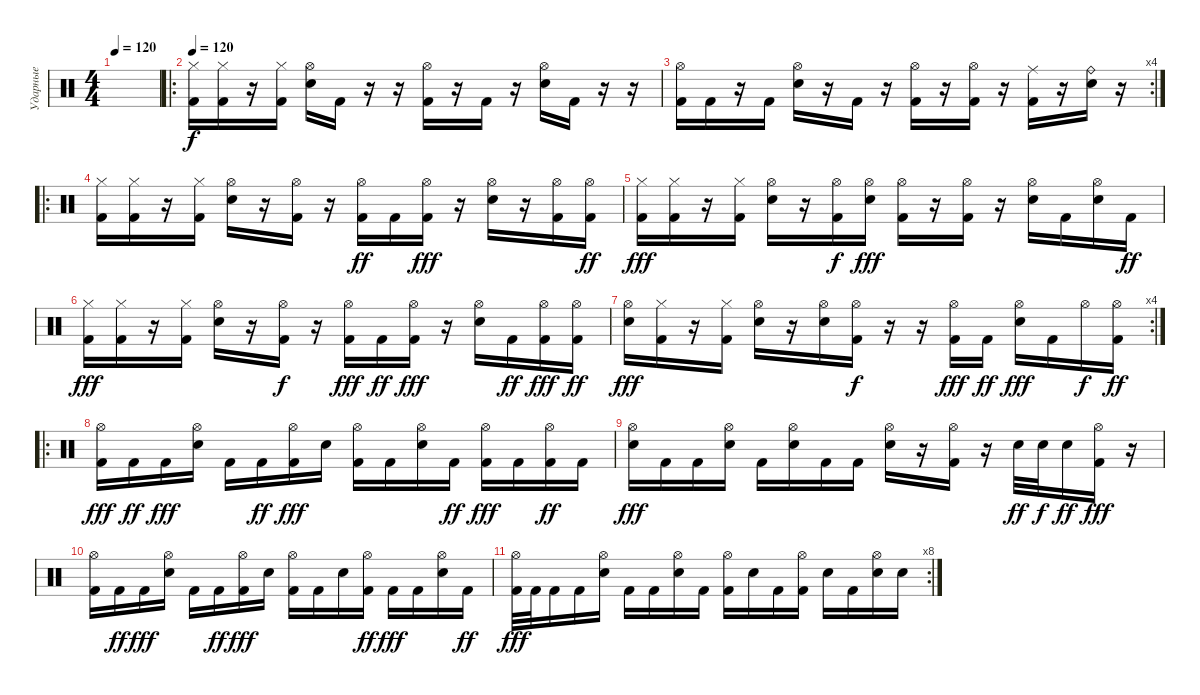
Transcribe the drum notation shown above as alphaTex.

\track ("Ударные" "Ударные") {instrument percussion}
\staff {score}
\articulation defaults
\ts (4 4)
\tempo 120
\clef neutral
\ks c
|
\ro
\tempo 120
("Hi-Hat (closed)" "Kick (hit) 2").16 ("Hi-Hat (closed)" "Kick (hit) 2").16 r.16 ("Hi-Hat (closed)" "Kick (hit) 2").16 ("Hi-Hat (open)" "Electric Snare (hit)").16 "Kick (hit) 2".16 r.16 r.16 ("Hi-Hat (open)" "Kick (hit) 2").16 r.16 "Kick (hit) 2".16 r.16 ("Hi-Hat (open)" "Electric Snare (hit)").16 "Kick (hit) 2".16 r.16 r.16 |
\rc 4
("Hi-Hat (open)" "Kick (hit) 2").16 "Kick (hit) 2".16 r.16 "Kick (hit) 2".16 ("Hi-Hat (open)" "Electric Snare (hit)").16 r.16 "Kick (hit) 2".16 r.16 ("Hi-Hat (open)" "Kick (hit) 2").16 r.16 ("Hi-Hat (open)" "Kick (hit) 2").16 r.16 ("Ride (middle)" "Kick (hit) 2").16 r.16 ("Ride (bell)" "Electric Snare (hit)").16 r.16 |
\ro
("Hi-Hat (closed)" "Kick (hit) 2").16 ("Hi-Hat (closed)" "Kick (hit) 2").16 r.16 ("Hi-Hat (closed)" "Kick (hit) 2").16 ("Hi-Hat (open)" "Electric Snare (hit)").16 r.16 ("Hi-Hat (open)" "Kick (hit) 2").16{dy f} r.16 ("Hi-Hat (open)" "Kick (hit) 2").16{dy ff} "Kick (hit) 2".16 ("Hi-Hat (open)" "Kick (hit) 2").16{dy fff} r.16 ("Hi-Hat (open)" "Electric Snare (hit)").16 r.16 ("Hi-Hat (open)" "Kick (hit) 2").16 ("Hi-Hat (open)" "Kick (hit) 2").16{dy ff} |
("Hi-Hat (closed)" "Kick (hit) 2").16{dy fff} ("Hi-Hat (closed)" "Kick (hit) 2").16 r.16 ("Hi-Hat (closed)" "Kick (hit) 2").16 ("Hi-Hat (open)" "Electric Snare (hit)").16 r.16 ("Hi-Hat (open)" "Kick (hit) 2").16{dy f} ("Hi-Hat (open)" "Electric Snare (hit)").16{dy fff} ("Hi-Hat (open)" "Kick (hit) 2").16 r.16 ("Hi-Hat (open)" "Kick (hit) 2").16 r.16 ("Hi-Hat (open)" "Electric Snare (hit)").16 "Kick (hit) 2".16 ("Hi-Hat (open)" "Electric Snare (hit)").16 "Kick (hit) 2".16{dy ff} |
("Hi-Hat (closed)" "Kick (hit) 2").16{dy fff} ("Hi-Hat (closed)" "Kick (hit) 2").16 r.16 ("Hi-Hat (closed)" "Kick (hit) 2").16 ("Hi-Hat (open)" "Electric Snare (hit)").16 r.16 ("Hi-Hat (open)" "Kick (hit) 2").16{dy f} r.16 ("Hi-Hat (open)" "Kick (hit) 2").16{dy fff} "Kick (hit) 2".16{dy ff} ("Hi-Hat (open)" "Kick (hit) 2").16{dy fff} r.16 ("Hi-Hat (open)" "Electric Snare (hit)").16 "Kick (hit) 2".16{dy ff} ("Hi-Hat (open)" "Kick (hit) 2").16{dy fff} ("Hi-Hat (open)" "Kick (hit) 2").16{dy ff} |
\rc 4
("Hi-Hat (open)" "Electric Snare (hit)").16{dy fff} ("Hi-Hat (closed)" "Kick (hit) 2").16 r.16 ("Hi-Hat (closed)" "Kick (hit) 2").16 ("Hi-Hat (open)" "Electric Snare (hit)").16 r.16 ("Hi-Hat (open)" "Electric Snare (hit)").16 ("Hi-Hat (open)" "Kick (hit) 2").16{dy f} r.16 r.16 ("Hi-Hat (open)" "Kick (hit) 2").16{dy fff} "Kick (hit) 2".16{dy ff} ("Hi-Hat (open)" "Electric Snare (hit)").16{dy fff} "Kick (hit) 2".16 "Hi-Hat (open)".16{dy f} ("Hi-Hat (open)" "Kick (hit) 2").16{dy ff} |
\ro
("Hi-Hat (open)" "Kick (hit) 2").16{dy fff} "Kick (hit) 2".16{dy ff} "Kick (hit) 2".16{dy fff} ("Hi-Hat (open)" "Electric Snare (hit)").16 "Kick (hit) 2".16 "Kick (hit) 2".16{dy ff} ("Hi-Hat (open)" "Kick (hit) 2").16{dy fff} "Electric Snare (hit)".16 ("Hi-Hat (open)" "Kick (hit) 2").16 "Kick (hit) 2".16 ("Hi-Hat (open)" "Electric Snare (hit)").16 "Kick (hit) 2".16{dy ff} ("Hi-Hat (open)" "Kick (hit) 2").16{dy fff} "Kick (hit) 2".16 ("Hi-Hat (open)" "Kick (hit) 2").16{dy ff} "Kick (hit) 2".16 |
("Hi-Hat (open)" "Electric Snare (hit)").16{dy fff} "Kick (hit) 2".16 "Kick (hit) 2".16 ("Hi-Hat (open)" "Electric Snare (hit)").16 "Kick (hit) 2".16 ("Hi-Hat (open)" "Electric Snare (hit)").16 "Kick (hit) 2".16 "Kick (hit) 2".16 ("Hi-Hat (open)" "Electric Snare (hit)").16 r.16 ("Hi-Hat (open)" "Kick (hit) 2").16 r.16 "Electric Snare (hit)".32{dy ff} "Electric Snare (hit)".32{dy f} "Electric Snare (hit)".16{dy ff} ("Hi-Hat (open)" "Kick (hit) 2").16{dy fff} r.16 |
("Hi-Hat (open)" "Kick (hit) 2").16 "Kick (hit) 2".16{dy ff} "Kick (hit) 2".16{dy fff} ("Hi-Hat (open)" "Electric Snare (hit)").16 "Kick (hit) 2".16 "Kick (hit) 2".16{dy ff} ("Hi-Hat (open)" "Kick (hit) 2").16{dy fff} "Electric Snare (hit)".16 ("Hi-Hat (open)" "Kick (hit) 2").16 "Kick (hit) 2".16 "Electric Snare (hit)".16 ("Hi-Hat (open)" "Kick (hit) 2").16{dy ff} "Kick (hit) 2".16{dy fff} "Kick (hit) 2".16 ("Hi-Hat (open)" "Electric Snare (hit)").16 "Kick (hit) 2".16{dy ff} |
\rc 8
("Hi-Hat (open)" "Kick (hit) 2").32{dy fff} "Kick (hit) 2".32 "Kick (hit) 2".16 "Kick (hit) 2".16 ("Hi-Hat (open)" "Electric Snare (hit)").16 "Kick (hit) 2".16 "Kick (hit) 2".16 ("Hi-Hat (open)" "Electric Snare (hit)").16 "Kick (hit) 2".16 ("Hi-Hat (open)" "Kick (hit) 2").16 "Electric Snare (hit)".16 "Kick (hit) 2".16 ("Hi-Hat (open)" "Kick (hit) 2").16 "Electric Snare (hit)".16 "Kick (hit) 2".16 ("Hi-Hat (open)" "Electric Snare (hit)").16 "Electric Snare (hit)".16
